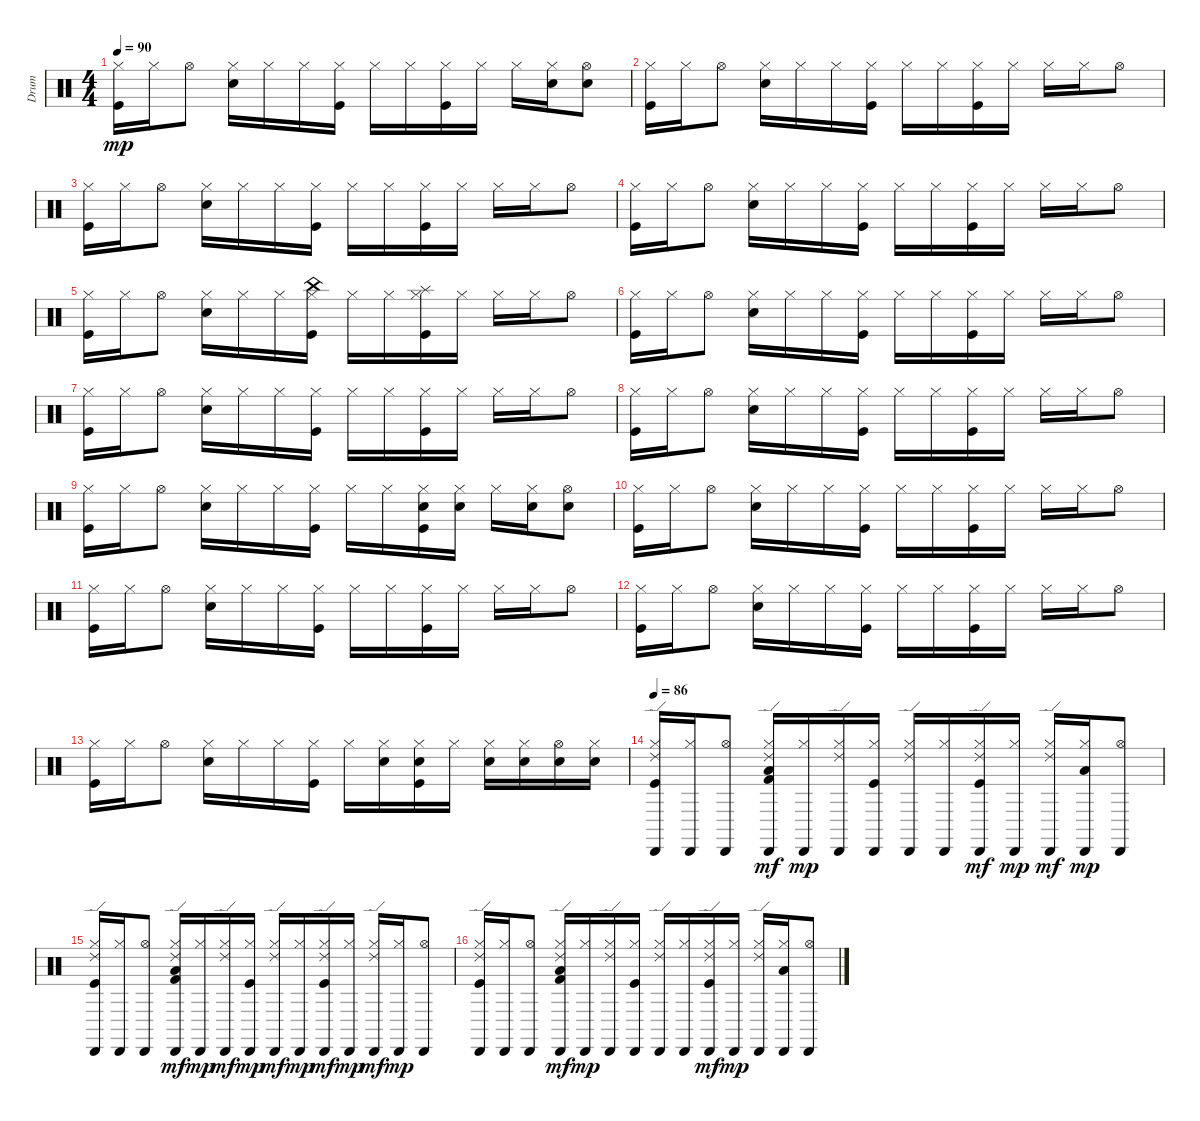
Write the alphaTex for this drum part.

\track ("Drum" "Drum") {instrument percussion}
\staff {score}
\articulation defaults
\ts (4 4)
\tempo 90
\clef neutral
\ks c
("Kick (hit)" "Hi-Hat (closed)").16{dy mp} "Hi-Hat (closed)".16 "Hi-Hat (open)".8 ("Hi-Hat (closed)" "Snare (hit) 2").16 "Hi-Hat (closed)".16 "Hi-Hat (closed)".16 ("Kick (hit)" "Hi-Hat (closed)").16 "Hi-Hat (closed)".16 "Hi-Hat (closed)".16 ("Hi-Hat (closed)" "Kick (hit)").16 "Hi-Hat (closed)".16 "Hi-Hat (closed)".16 ("Snare (hit) 2" "Hi-Hat (closed)").16 ("Hi-Hat (open)" "Snare (hit) 2").8 |
("Kick (hit)" "Hi-Hat (closed)").16 "Hi-Hat (closed)".16 "Hi-Hat (open)".8 ("Snare (hit) 2" "Hi-Hat (closed)").16 "Hi-Hat (closed)".16 "Hi-Hat (closed)".16 ("Kick (hit)" "Hi-Hat (closed)").16 "Hi-Hat (closed)".16 "Hi-Hat (closed)".16 ("Hi-Hat (closed)" "Kick (hit)").16 "Hi-Hat (closed)".16 "Hi-Hat (closed)".16 "Hi-Hat (closed)".16 "Hi-Hat (open)".8 |
("Kick (hit)" "Hi-Hat (closed)").16 "Hi-Hat (closed)".16 "Hi-Hat (open)".8 ("Snare (hit) 2" "Hi-Hat (closed)").16 "Hi-Hat (closed)".16 "Hi-Hat (closed)".16 ("Hi-Hat (closed)" "Kick (hit)").16 "Hi-Hat (closed)".16 "Hi-Hat (closed)".16 ("Hi-Hat (closed)" "Kick (hit)").16 "Hi-Hat (closed)".16 "Hi-Hat (closed)".16 "Hi-Hat (closed)".16 "Hi-Hat (open)".8 |
("Kick (hit)" "Hi-Hat (closed)").16 "Hi-Hat (closed)".16 "Hi-Hat (open)".8 ("Hi-Hat (closed)" "Snare (hit) 2").16 "Hi-Hat (closed)".16 "Hi-Hat (closed)".16 ("Hi-Hat (closed)" "Kick (hit)").16 "Hi-Hat (closed)".16 "Hi-Hat (closed)".16 ("Kick (hit)" "Hi-Hat (closed)").16 "Hi-Hat (closed)".16 "Hi-Hat (closed)".16 "Hi-Hat (closed)".16 "Hi-Hat (open)".8 |
("Hi-Hat (closed)" "Kick (hit)").16 "Hi-Hat (closed)".16 "Hi-Hat (open)".8 ("Hi-Hat (closed)" "Snare (hit) 2").16 "Hi-Hat (closed)".16 "Hi-Hat (closed)".16 ("China (hit)" "Hi-Hat (closed)" "Kick (hit)").16 "Hi-Hat (closed)".16 "Hi-Hat (closed)".16 ("Splash (hit)" "Hi-Hat (closed)" "Kick (hit)").16 "Hi-Hat (closed)".16 "Hi-Hat (closed)".16 "Hi-Hat (closed)".16 "Hi-Hat (open)".8 |
("Hi-Hat (closed)" "Kick (hit)").16 "Hi-Hat (closed)".16 "Hi-Hat (open)".8 ("Hi-Hat (closed)" "Snare (hit) 2").16 "Hi-Hat (closed)".16 "Hi-Hat (closed)".16 ("Hi-Hat (closed)" "Kick (hit)").16 "Hi-Hat (closed)".16 "Hi-Hat (closed)".16 ("Kick (hit)" "Hi-Hat (closed)").16 "Hi-Hat (closed)".16 "Hi-Hat (closed)".16 "Hi-Hat (closed)".16 "Hi-Hat (open)".8 |
("Kick (hit)" "Hi-Hat (closed)").16 "Hi-Hat (closed)".16 "Hi-Hat (open)".8 ("Snare (hit) 2" "Hi-Hat (closed)").16 "Hi-Hat (closed)".16 "Hi-Hat (closed)".16 ("Hi-Hat (closed)" "Kick (hit)").16 "Hi-Hat (closed)".16 "Hi-Hat (closed)".16 ("Hi-Hat (closed)" "Kick (hit)").16 "Hi-Hat (closed)".16 "Hi-Hat (closed)".16 "Hi-Hat (closed)".16 "Hi-Hat (open)".8 |
("Hi-Hat (closed)" "Kick (hit)").16 "Hi-Hat (closed)".16 "Hi-Hat (open)".8 ("Hi-Hat (closed)" "Snare (hit) 2").16 "Hi-Hat (closed)".16 "Hi-Hat (closed)".16 ("Hi-Hat (closed)" "Kick (hit)").16 "Hi-Hat (closed)".16 "Hi-Hat (closed)".16 ("Hi-Hat (closed)" "Kick (hit)").16 "Hi-Hat (closed)".16 "Hi-Hat (closed)".16 "Hi-Hat (closed)".16 "Hi-Hat (open)".8 |
("Hi-Hat (closed)" "Kick (hit)").16 "Hi-Hat (closed)".16 "Hi-Hat (open)".8 ("Hi-Hat (closed)" "Snare (hit) 2").16 "Hi-Hat (closed)".16 "Hi-Hat (closed)".16 ("Hi-Hat (closed)" "Kick (hit)").16 "Hi-Hat (closed)".16 "Hi-Hat (closed)".16 ("Snare (hit) 2" "Hi-Hat (closed)" "Kick (hit)").16 ("Snare (hit) 2" "Hi-Hat (closed)").16 "Hi-Hat (closed)".16 ("Snare (hit) 2" "Hi-Hat (closed)").16 ("Snare (hit) 2" "Hi-Hat (open)").8 |
("Hi-Hat (closed)" "Kick (hit)").16 "Hi-Hat (closed)".16 "Hi-Hat (open)".8 ("Hi-Hat (closed)" "Snare (hit) 2").16 "Hi-Hat (closed)".16 "Hi-Hat (closed)".16 ("Hi-Hat (closed)" "Kick (hit)").16 "Hi-Hat (closed)".16 "Hi-Hat (closed)".16 ("Hi-Hat (closed)" "Kick (hit)").16 "Hi-Hat (closed)".16 "Hi-Hat (closed)".16 "Hi-Hat (closed)".16 "Hi-Hat (open)".8 |
("Hi-Hat (closed)" "Kick (hit)").16 "Hi-Hat (closed)".16 "Hi-Hat (open)".8 ("Hi-Hat (closed)" "Snare (hit) 2").16 "Hi-Hat (closed)".16 "Hi-Hat (closed)".16 ("Hi-Hat (closed)" "Kick (hit)").16 "Hi-Hat (closed)".16 "Hi-Hat (closed)".16 ("Hi-Hat (closed)" "Kick (hit)").16 "Hi-Hat (closed)".16 "Hi-Hat (closed)".16 "Hi-Hat (closed)".16 "Hi-Hat (open)".8 |
("Hi-Hat (closed)" "Kick (hit)").16 "Hi-Hat (closed)".16 "Hi-Hat (open)".8 ("Hi-Hat (closed)" "Snare (hit) 2").16 "Hi-Hat (closed)".16 "Hi-Hat (closed)".16 ("Hi-Hat (closed)" "Kick (hit)").16 "Hi-Hat (closed)".16 "Hi-Hat (closed)".16 ("Hi-Hat (closed)" "Kick (hit)").16 "Hi-Hat (closed)".16 "Hi-Hat (closed)".16 "Hi-Hat (closed)".16 "Hi-Hat (open)".8 |
("Hi-Hat (closed)" "Kick (hit)").16 "Hi-Hat (closed)".16 "Hi-Hat (open)".8 ("Hi-Hat (closed)" "Snare (hit) 2").16 "Hi-Hat (closed)".16 "Hi-Hat (closed)".16 ("Hi-Hat (closed)" "Kick (hit)").16 "Hi-Hat (closed)".16 ("Snare (hit) 2" "Hi-Hat (closed)").16 ("Snare (hit) 2" "Hi-Hat (closed)" "Kick (hit)").16 "Hi-Hat (closed)".16 ("Snare (hit) 2" "Hi-Hat (closed)").16 ("Snare (hit) 2" "Hi-Hat (closed)").16 ("Snare (hit) 2" "Hi-Hat (open)").16 ("Snare (hit) 2" "Hi-Hat (closed)").16 |
\tempo 86
("Cabasa (hit)" "Ride (edge) 2" "Hi-Hat (closed)" "Kick (hit)").16 ("Hi-Hat (closed)" "Cabasa (hit)").16 ("Cabasa (hit)" "Hi-Hat (open)").8 ("Hi-Hat (closed)" "Cabasa (hit)" "Kick (hit) 2" "Low Tom (hit)" "Ride (edge) 2").16{dy mf} ("Hi-Hat (closed)" "Cabasa (hit)").16{dy mp} ("Cabasa (hit)" "Ride (edge) 2" "Hi-Hat (closed)").16 ("Kick (hit)" "Cabasa (hit)" "Hi-Hat (closed)").16 ("Cabasa (hit)" "Ride (edge) 2" "Hi-Hat (closed)").16 ("Hi-Hat (closed)" "Cabasa (hit)").16 ("Kick (hit)" "Hi-Hat (closed)" "Cabasa (hit)" "Ride (edge) 2").16{dy mf} ("Cabasa (hit)" "Hi-Hat (closed)").16{dy mp} ("Cabasa (hit)" "Hi-Hat (closed)" "Ride (edge) 2").16{dy mf} ("Low Tom (hit)" "Hi-Hat (closed)" "Cabasa (hit)").16{dy mp} ("Hi-Hat (open)" "Cabasa (hit)").8 |
("Ride (edge) 2" "Hi-Hat (closed)" "Kick (hit)" "Cabasa (hit)").16 ("Hi-Hat (closed)" "Cabasa (hit)").16 ("Hi-Hat (open)" "Cabasa (hit)").8 ("Hi-Hat (closed)" "Kick (hit) 2" "Cabasa (hit)" "Ride (edge) 2" "Low Tom (hit)").16{dy mf} ("Hi-Hat (closed)" "Cabasa (hit)").16{dy mp} ("Hi-Hat (closed)" "Cabasa (hit)" "Ride (edge) 2").16{dy mf} ("Hi-Hat (closed)" "Kick (hit)" "Cabasa (hit)").16{dy mp} ("Hi-Hat (closed)" "Cabasa (hit)" "Ride (edge) 2").16{dy mf} ("Hi-Hat (closed)" "Cabasa (hit)").16{dy mp} ("Hi-Hat (closed)" "Kick (hit)" "Cabasa (hit)" "Ride (edge) 2").16{dy mf} ("Hi-Hat (closed)" "Cabasa (hit)").16{dy mp} ("Hi-Hat (closed)" "Cabasa (hit)" "Ride (edge) 2").16{dy mf} ("Hi-Hat (closed)" "Cabasa (hit)").16{dy mp} ("Hi-Hat (open)" "Cabasa (hit)").8 |
("Ride (edge) 2" "Kick (hit)" "Hi-Hat (closed)" "Cabasa (hit)").16 ("Hi-Hat (closed)" "Cabasa (hit)").16 ("Cabasa (hit)" "Hi-Hat (open)").8 ("Ride (edge) 2" "Hi-Hat (closed)" "Cabasa (hit)" "Kick (hit) 2" "Low Tom (hit)").16{dy mf} ("Hi-Hat (closed)" "Cabasa (hit)").16{dy mp} ("Ride (edge) 2" "Hi-Hat (closed)" "Cabasa (hit)").16 ("Kick (hit)" "Hi-Hat (closed)" "Cabasa (hit)").16 ("Ride (edge) 2" "Cabasa (hit)" "Hi-Hat (closed)").16 ("Cabasa (hit)" "Hi-Hat (closed)").16 ("Cabasa (hit)" "Hi-Hat (closed)" "Kick (hit)" "Ride (edge) 2").16{dy mf} ("Hi-Hat (closed)" "Cabasa (hit)").16{dy mp} ("Cabasa (hit)" "Ride (edge) 2" "Hi-Hat (closed)").16 ("Low Tom (hit)" "Cabasa (hit)" "Hi-Hat (closed)").16 ("Hi-Hat (open)" "Cabasa (hit)").8
